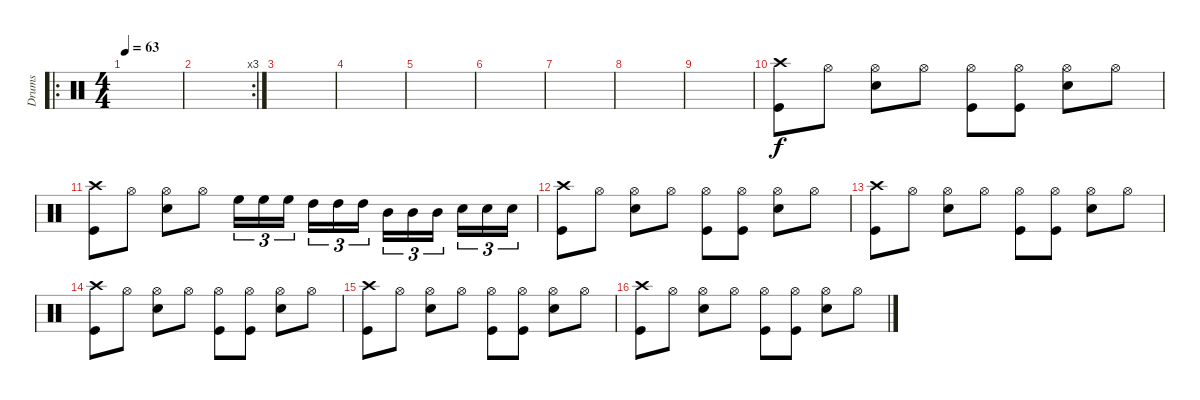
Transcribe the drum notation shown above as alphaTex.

\track ("Drums" "Drums") {instrument percussion}
\staff {score}
\articulation defaults
\ro
\ts (4 4)
\tempo 63
\clef neutral
\ks c
|
\rc 3
|
|
|
|
|
|
|
|
("Crash high (hit)" "Kick (hit)").8 "Hi-Hat (open)".8 ("Hi-Hat (open)" "Electric Snare (hit)").8 "Hi-Hat (open)".8 ("Hi-Hat (open)" "Kick (hit)").8 ("Hi-Hat (open)" "Kick (hit)").8 ("Hi-Hat (open)" "Electric Snare (hit)").8 "Hi-Hat (open)".8 |
("Crash high (hit)" "Kick (hit)").8 "Hi-Hat (open)".8 ("Hi-Hat (open)" "Electric Snare (hit)").8 "Hi-Hat (open)".8 "High Floor Tom (hit)".16{tu (3 2)} "High Floor Tom (hit)".16{tu (3 2)} "High Floor Tom (hit)".16{tu (3 2)} "High Tom (hit)".16{tu (3 2)} "High Tom (hit)".16{tu (3 2)} "High Tom (hit)".16{tu (3 2)} "Mid Tom (hit)".16{tu (3 2)} "Mid Tom (hit)".16{tu (3 2)} "Mid Tom (hit)".16{tu (3 2)} "Electric Snare (hit)".16{tu (3 2)} "Electric Snare (hit)".16{tu (3 2)} "Electric Snare (hit)".16{tu (3 2)} |
("Crash high (hit)" "Kick (hit)").8 "Hi-Hat (open)".8 ("Hi-Hat (open)" "Electric Snare (hit)").8 "Hi-Hat (open)".8 ("Hi-Hat (open)" "Kick (hit)").8 ("Hi-Hat (open)" "Kick (hit)").8 ("Hi-Hat (open)" "Electric Snare (hit)").8 "Hi-Hat (open)".8 |
("Crash high (hit)" "Kick (hit)").8 "Hi-Hat (open)".8 ("Hi-Hat (open)" "Electric Snare (hit)").8 "Hi-Hat (open)".8 ("Hi-Hat (open)" "Kick (hit)").8 ("Hi-Hat (open)" "Kick (hit)").8 ("Hi-Hat (open)" "Electric Snare (hit)").8 "Hi-Hat (open)".8 |
("Crash high (hit)" "Kick (hit)").8 "Hi-Hat (open)".8 ("Hi-Hat (open)" "Electric Snare (hit)").8 "Hi-Hat (open)".8 ("Hi-Hat (open)" "Kick (hit)").8 ("Hi-Hat (open)" "Kick (hit)").8 ("Hi-Hat (open)" "Electric Snare (hit)").8 "Hi-Hat (open)".8 |
("Crash high (hit)" "Kick (hit)").8 "Hi-Hat (open)".8 ("Hi-Hat (open)" "Electric Snare (hit)").8 "Hi-Hat (open)".8 ("Hi-Hat (open)" "Kick (hit)").8 ("Hi-Hat (open)" "Kick (hit)").8 ("Hi-Hat (open)" "Electric Snare (hit)").8 "Hi-Hat (open)".8 |
("Crash high (hit)" "Kick (hit)").8 "Hi-Hat (open)".8 ("Hi-Hat (open)" "Electric Snare (hit)").8 "Hi-Hat (open)".8 ("Hi-Hat (open)" "Kick (hit)").8 ("Hi-Hat (open)" "Kick (hit)").8 ("Hi-Hat (open)" "Electric Snare (hit)").8 "Hi-Hat (open)".8
